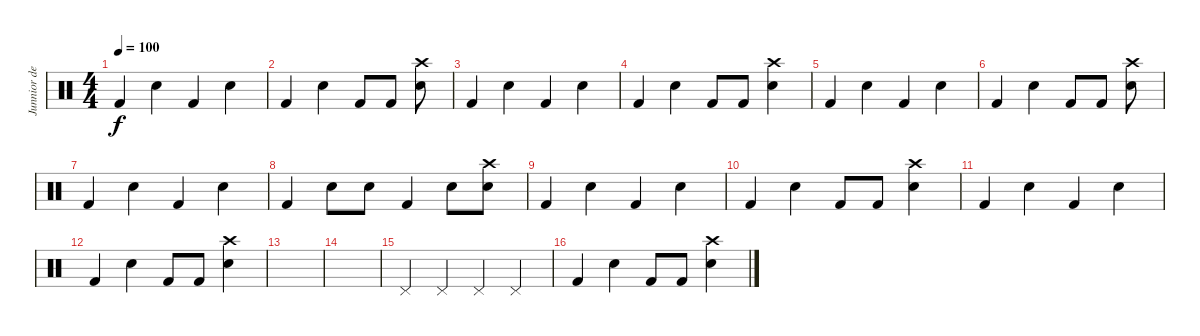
\track ("Junnior de Jesus" "Junnior de") {instrument percussion}
\staff {score}
\articulation defaults
\ts (4 4)
\tempo 100
\clef neutral
\ks c "Kick (hit) 2".4{dy f} "Snare (hit) 2".4 "Kick (hit) 2".4 "Snare (hit) 2".4
|
"Kick (hit) 2".4 "Snare (hit) 2".4 "Kick (hit) 2".8 "Kick (hit) 2".8 ("Snare (hit) 2" "Crash high (hit)").8 |
"Kick (hit) 2".4 "Snare (hit) 2".4 "Kick (hit) 2".4 "Snare (hit) 2".4 |
"Kick (hit) 2".4 "Snare (hit) 2".4 "Kick (hit) 2".8 "Kick (hit) 2".8 ("Snare (hit) 2" "Crash high (hit)").4 |
"Kick (hit) 2".4 "Snare (hit) 2".4 "Kick (hit) 2".4 "Snare (hit) 2".4 |
"Kick (hit) 2".4 "Snare (hit) 2".4 "Kick (hit) 2".8 "Kick (hit) 2".8 ("Snare (hit) 2" "Crash high (hit)").8 |
"Kick (hit) 2".4 "Snare (hit) 2".4 "Kick (hit) 2".4 "Snare (hit) 2".4 |
"Kick (hit) 2".4 "Snare (hit) 2".8 "Snare (hit) 2".8 "Kick (hit) 2".4 "Snare (hit) 2".8 ("Snare (hit) 2" "Crash high (hit)").8 |
"Kick (hit) 2".4 "Snare (hit) 2".4 "Kick (hit) 2".4 "Snare (hit) 2".4 |
"Kick (hit) 2".4 "Snare (hit) 2".4 "Kick (hit) 2".8 "Kick (hit) 2".8 ("Snare (hit) 2" "Crash high (hit)").4 |
"Kick (hit) 2".4 "Snare (hit) 2".4 "Kick (hit) 2".4 "Snare (hit) 2".4 |
"Kick (hit) 2".4 "Snare (hit) 2".4 "Kick (hit) 2".8 "Kick (hit) 2".8 ("Snare (hit) 2" "Crash high (hit)").4 |
|
|
"Pedal Hi-Hat (hit)".4 "Pedal Hi-Hat (hit)".4 "Pedal Hi-Hat (hit)".4 "Pedal Hi-Hat (hit)".4 |
"Kick (hit) 2".4 "Snare (hit) 2".4 "Kick (hit) 2".8 "Kick (hit) 2".8 ("Snare (hit) 2" "Crash high (hit)").4
